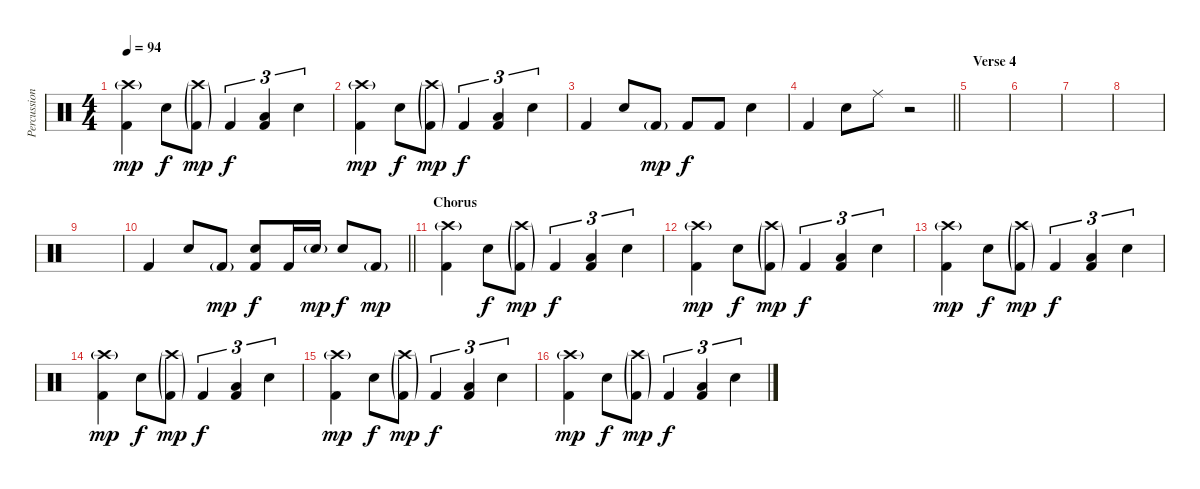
\track ("Percussion" "Percussion") {instrument percussion}
\staff {score}
\articulation defaults
\ts (4 4)
\tempo 94
\clef neutral
\ks c
("Crash high (hit)"{g} "Kick (hit) 2").4{dy mp} "Snare (hit) 2".8{dy f} ("Crash high (hit)"{g} "Kick (hit) 2"{g}).8{dy mp} "Kick (hit) 2".4{tu (3 2) dy f} ("Low Floor Tom (hit)" "Kick (hit) 2").4{tu (3 2)} "Snare (hit) 2".4{tu (3 2)} |
("Crash high (hit)"{g} "Kick (hit) 2").4{dy mp} "Snare (hit) 2".8{dy f} ("Crash high (hit)"{g} "Kick (hit) 2"{g}).8{dy mp} "Kick (hit) 2".4{tu (3 2) dy f} ("Low Floor Tom (hit)" "Kick (hit) 2").4{tu (3 2)} "Snare (hit) 2".4{tu (3 2)} |
"Kick (hit) 2".4 "Snare (hit) 2".8 "Kick (hit) 2"{g}.8{dy mp} "Kick (hit) 2".8{dy f} "Kick (hit) 2".8 "Snare (hit) 2".4 |
\barLineRight lightlight "Kick (hit) 2".4 "Snare (hit) 2".8 "Ride (middle)".8
r.2 |
\section ("" "Verse 4")
|
|
|
|
|
\barLineRight lightlight "Kick (hit) 2".4 "Snare (hit) 2".8 "Kick (hit) 2"{g}.8{dy mp}
("Snare (hit) 2" "Kick (hit) 2").8{dy f} "Kick (hit) 2".16 "Snare (hit) 2"{g}.16{dy mp} "Snare (hit) 2".8{dy f} "Kick (hit) 2"{g}.8{dy mp} |
\section ("" "Chorus")
("Crash high (hit)"{g} "Kick (hit) 2").4 "Snare (hit) 2".8{dy f} ("Crash high (hit)"{g} "Kick (hit) 2"{g}).8{dy mp} "Kick (hit) 2".4{tu (3 2) dy f} ("Low Floor Tom (hit)" "Kick (hit) 2").4{tu (3 2)} "Snare (hit) 2".4{tu (3 2)} |
("Crash high (hit)"{g} "Kick (hit) 2").4{dy mp} "Snare (hit) 2".8{dy f} ("Crash high (hit)"{g} "Kick (hit) 2"{g}).8{dy mp} "Kick (hit) 2".4{tu (3 2) dy f} ("Low Floor Tom (hit)" "Kick (hit) 2").4{tu (3 2)} "Snare (hit) 2".4{tu (3 2)} |
("Crash high (hit)"{g} "Kick (hit) 2").4{dy mp} "Snare (hit) 2".8{dy f} ("Crash high (hit)"{g} "Kick (hit) 2"{g}).8{dy mp} "Kick (hit) 2".4{tu (3 2) dy f} ("Low Floor Tom (hit)" "Kick (hit) 2").4{tu (3 2)} "Snare (hit) 2".4{tu (3 2)} |
("Crash high (hit)"{g} "Kick (hit) 2").4{dy mp} "Snare (hit) 2".8{dy f} ("Crash high (hit)"{g} "Kick (hit) 2"{g}).8{dy mp} "Kick (hit) 2".4{tu (3 2) dy f} ("Low Floor Tom (hit)" "Kick (hit) 2").4{tu (3 2)} "Snare (hit) 2".4{tu (3 2)} |
("Crash high (hit)"{g} "Kick (hit) 2").4{dy mp} "Snare (hit) 2".8{dy f} ("Crash high (hit)"{g} "Kick (hit) 2"{g}).8{dy mp} "Kick (hit) 2".4{tu (3 2) dy f} ("Low Floor Tom (hit)" "Kick (hit) 2").4{tu (3 2)} "Snare (hit) 2".4{tu (3 2)} |
("Crash high (hit)"{g} "Kick (hit) 2").4{dy mp} "Snare (hit) 2".8{dy f} ("Crash high (hit)"{g} "Kick (hit) 2"{g}).8{dy mp} "Kick (hit) 2".4{tu (3 2) dy f} ("Low Floor Tom (hit)" "Kick (hit) 2").4{tu (3 2)} "Snare (hit) 2".4{tu (3 2)}
